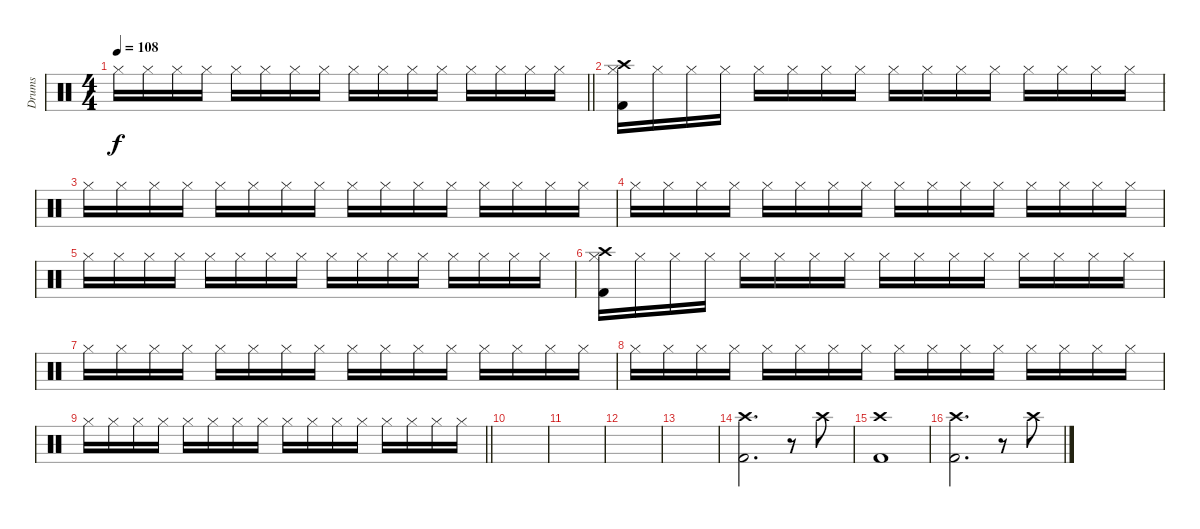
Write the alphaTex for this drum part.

\track ("Drums" "Drums") {instrument percussion}
\staff {score}
\articulation defaults
\ts (4 4)
\tempo 108
\clef neutral
\barLineRight lightlight
\ks c "Hi-Hat (closed)".16{dy f} "Hi-Hat (closed)".16 "Hi-Hat (closed)".16 "Hi-Hat (closed)".16 "Hi-Hat (closed)".16 "Hi-Hat (closed)".16 "Hi-Hat (closed)".16 "Hi-Hat (closed)".16 "Hi-Hat (closed)".16 "Hi-Hat (closed)".16 "Hi-Hat (closed)".16 "Hi-Hat (closed)".16 "Hi-Hat (closed)".16 "Hi-Hat (closed)".16 "Hi-Hat (closed)".16 "Hi-Hat (closed)".16
|
\section ("" "")
("Crash high (hit)" "Hi-Hat (closed)" "Kick (hit) 2").16 "Hi-Hat (closed)".16 "Hi-Hat (closed)".16 "Hi-Hat (closed)".16 "Hi-Hat (closed)".16 "Hi-Hat (closed)".16 "Hi-Hat (closed)".16 "Hi-Hat (closed)".16 "Hi-Hat (closed)".16 "Hi-Hat (closed)".16 "Hi-Hat (closed)".16 "Hi-Hat (closed)".16 "Hi-Hat (closed)".16 "Hi-Hat (closed)".16 "Hi-Hat (closed)".16 "Hi-Hat (closed)".16 |
"Hi-Hat (closed)".16 "Hi-Hat (closed)".16 "Hi-Hat (closed)".16 "Hi-Hat (closed)".16 "Hi-Hat (closed)".16 "Hi-Hat (closed)".16 "Hi-Hat (closed)".16 "Hi-Hat (closed)".16 "Hi-Hat (closed)".16 "Hi-Hat (closed)".16 "Hi-Hat (closed)".16 "Hi-Hat (closed)".16 "Hi-Hat (closed)".16 "Hi-Hat (closed)".16 "Hi-Hat (closed)".16 "Hi-Hat (closed)".16 |
"Hi-Hat (closed)".16 "Hi-Hat (closed)".16 "Hi-Hat (closed)".16 "Hi-Hat (closed)".16 "Hi-Hat (closed)".16 "Hi-Hat (closed)".16 "Hi-Hat (closed)".16 "Hi-Hat (closed)".16 "Hi-Hat (closed)".16 "Hi-Hat (closed)".16 "Hi-Hat (closed)".16 "Hi-Hat (closed)".16 "Hi-Hat (closed)".16 "Hi-Hat (closed)".16 "Hi-Hat (closed)".16 "Hi-Hat (closed)".16 |
"Hi-Hat (closed)".16 "Hi-Hat (closed)".16 "Hi-Hat (closed)".16 "Hi-Hat (closed)".16 "Hi-Hat (closed)".16 "Hi-Hat (closed)".16 "Hi-Hat (closed)".16 "Hi-Hat (closed)".16 "Hi-Hat (closed)".16 "Hi-Hat (closed)".16 "Hi-Hat (closed)".16 "Hi-Hat (closed)".16 "Hi-Hat (closed)".16 "Hi-Hat (closed)".16 "Hi-Hat (closed)".16 "Hi-Hat (closed)".16 |
("Crash high (hit)" "Hi-Hat (closed)" "Kick (hit) 2").16 "Hi-Hat (closed)".16 "Hi-Hat (closed)".16 "Hi-Hat (closed)".16 "Hi-Hat (closed)".16 "Hi-Hat (closed)".16 "Hi-Hat (closed)".16 "Hi-Hat (closed)".16 "Hi-Hat (closed)".16 "Hi-Hat (closed)".16 "Hi-Hat (closed)".16 "Hi-Hat (closed)".16 "Hi-Hat (closed)".16 "Hi-Hat (closed)".16 "Hi-Hat (closed)".16 "Hi-Hat (closed)".16 |
"Hi-Hat (closed)".16 "Hi-Hat (closed)".16 "Hi-Hat (closed)".16 "Hi-Hat (closed)".16 "Hi-Hat (closed)".16 "Hi-Hat (closed)".16 "Hi-Hat (closed)".16 "Hi-Hat (closed)".16 "Hi-Hat (closed)".16 "Hi-Hat (closed)".16 "Hi-Hat (closed)".16 "Hi-Hat (closed)".16 "Hi-Hat (closed)".16 "Hi-Hat (closed)".16 "Hi-Hat (closed)".16 "Hi-Hat (closed)".16 |
"Hi-Hat (closed)".16 "Hi-Hat (closed)".16 "Hi-Hat (closed)".16 "Hi-Hat (closed)".16 "Hi-Hat (closed)".16 "Hi-Hat (closed)".16 "Hi-Hat (closed)".16 "Hi-Hat (closed)".16 "Hi-Hat (closed)".16 "Hi-Hat (closed)".16 "Hi-Hat (closed)".16 "Hi-Hat (closed)".16 "Hi-Hat (closed)".16 "Hi-Hat (closed)".16 "Hi-Hat (closed)".16 "Hi-Hat (closed)".16 |
\barLineRight lightlight "Hi-Hat (closed)".16 "Hi-Hat (closed)".16 "Hi-Hat (closed)".16 "Hi-Hat (closed)".16 "Hi-Hat (closed)".16 "Hi-Hat (closed)".16 "Hi-Hat (closed)".16 "Hi-Hat (closed)".16 "Hi-Hat (closed)".16 "Hi-Hat (closed)".16 "Hi-Hat (closed)".16 "Hi-Hat (closed)".16 "Hi-Hat (closed)".16 "Hi-Hat (closed)".16 "Hi-Hat (closed)".16 "Hi-Hat (closed)".16
|
\section ("" "")
|
|
|
|
("Crash high (hit)" "Kick (hit) 2").2{d} r.8 "Crash high (hit)".8 |
("Crash high (hit)" "Kick (hit) 2").1 |
("Crash high (hit)" "Kick (hit) 2").2{d} r.8 "Crash high (hit)".8
